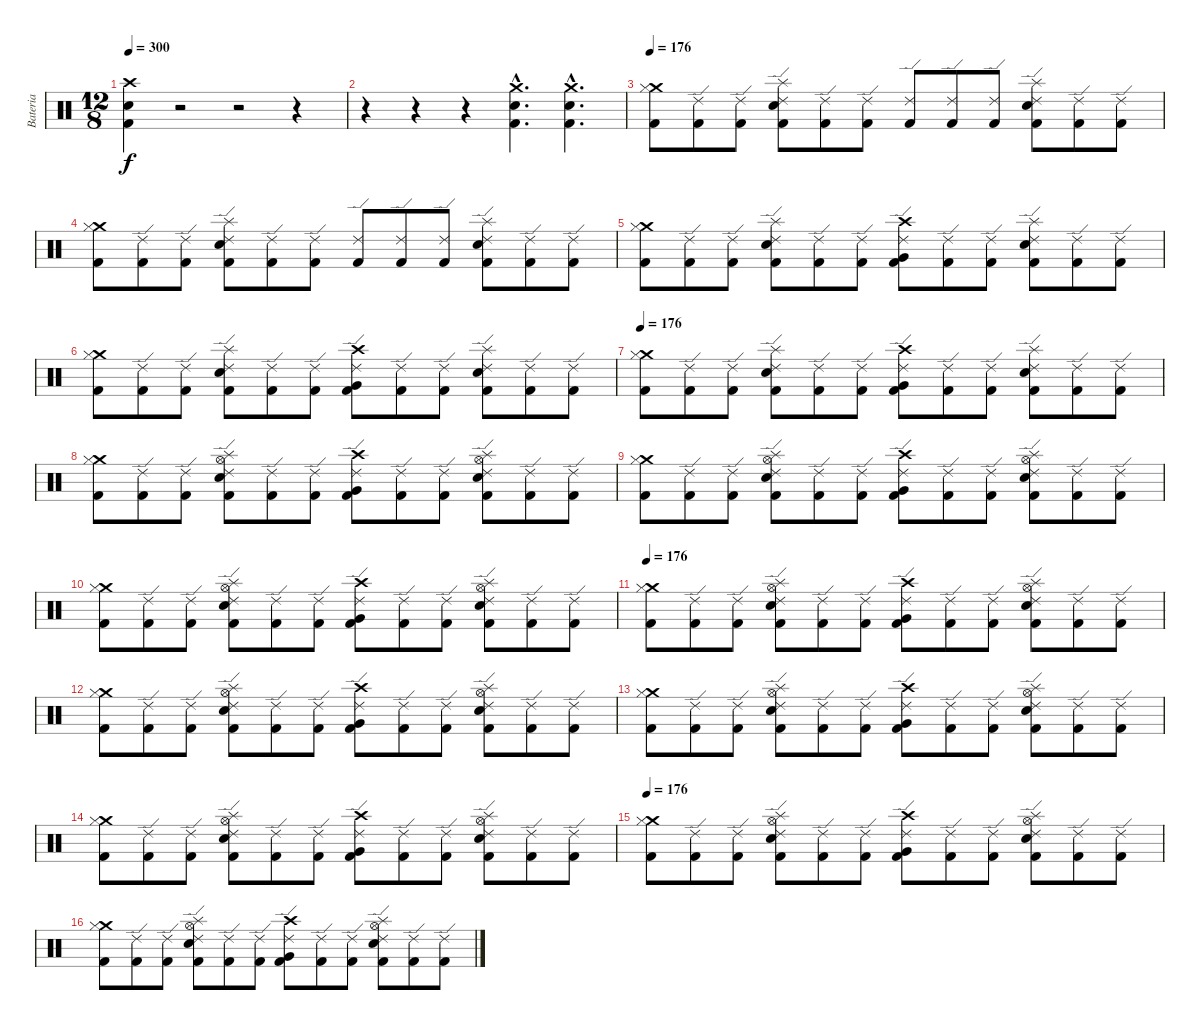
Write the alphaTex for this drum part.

\track ("Bateria" "Bateria") {instrument percussion}
\staff {score}
\articulation defaults
\ts (12 8)
\tempo 300
\clef neutral
\ks c
("Crash high (hit)" "Snare (hit) 2" "Kick (hit) 2").4{dy f} r.2 r.2 r.4 |
r.4 r.4 r.4 ("Crash medium (hit)"{hac} "Snare (hit) 2"{hac} "Kick (hit) 2"{hac}).4{d} ("Crash medium (hit)"{hac} "Snare (hit) 2"{hac} "Kick (hit) 2"{hac}).4{d} |
\tempo 176
("Crash medium (hit)" "Hi-Hat (closed)" "Kick (hit) 2").8 ("Ride (edge) 2" "Kick (hit) 2").8 ("Ride (edge) 2" "Kick (hit) 2").8 ("Splash (hit)" "Snare (hit) 2" "Ride (edge) 2" "Kick (hit) 2").8 ("Ride (edge) 2" "Kick (hit) 2").8 ("Ride (edge) 2" "Kick (hit) 2").8 ("Ride (edge) 2" "Kick (hit) 2").8 ("Ride (edge) 2" "Kick (hit) 2").8 ("Ride (edge) 2" "Kick (hit) 2").8 ("Splash (hit)" "Snare (hit) 2" "Ride (edge) 2" "Kick (hit) 2").8 ("Ride (edge) 2" "Kick (hit) 2").8 ("Ride (edge) 2" "Kick (hit) 2").8 |
("Crash medium (hit)" "Hi-Hat (closed)" "Kick (hit) 2").8 ("Ride (edge) 2" "Kick (hit) 2").8 ("Ride (edge) 2" "Kick (hit) 2").8 ("Splash (hit)" "Snare (hit) 2" "Ride (edge) 2" "Kick (hit) 2").8 ("Ride (edge) 2" "Kick (hit) 2").8 ("Ride (edge) 2" "Kick (hit) 2").8 ("Ride (edge) 2" "Kick (hit) 2").8 ("Ride (edge) 2" "Kick (hit) 2").8 ("Ride (edge) 2" "Kick (hit) 2").8 ("Splash (hit)" "Snare (hit) 2" "Ride (edge) 2" "Kick (hit) 2").8 ("Ride (edge) 2" "Kick (hit) 2").8 ("Ride (edge) 2" "Kick (hit) 2").8 |
("Crash medium (hit)" "Hi-Hat (closed)" "Kick (hit) 2").8 ("Ride (edge) 2" "Kick (hit) 2").8 ("Ride (edge) 2" "Kick (hit) 2").8 ("Splash (hit)" "Snare (hit) 2" "Ride (edge) 2" "Kick (hit) 2").8 ("Ride (edge) 2" "Kick (hit) 2").8 ("Ride (edge) 2" "Kick (hit) 2").8 ("Crash high (hit)" "Very Low Tom (hit)" "Ride (edge) 2" "Kick (hit) 2").8 ("Ride (edge) 2" "Kick (hit) 2").8 ("Ride (edge) 2" "Kick (hit) 2").8 ("Splash (hit)" "Snare (hit) 2" "Ride (edge) 2" "Kick (hit) 2").8 ("Ride (edge) 2" "Kick (hit) 2").8 ("Ride (edge) 2" "Kick (hit) 2").8 |
("Crash medium (hit)" "Hi-Hat (closed)" "Kick (hit) 2").8 ("Ride (edge) 2" "Kick (hit) 2").8 ("Ride (edge) 2" "Kick (hit) 2").8 ("Splash (hit)" "Snare (hit) 2" "Ride (edge) 2" "Kick (hit) 2").8 ("Ride (edge) 2" "Kick (hit) 2").8 ("Ride (edge) 2" "Kick (hit) 2").8 ("Crash high (hit)" "Very Low Tom (hit)" "Ride (edge) 2" "Kick (hit) 2").8 ("Ride (edge) 2" "Kick (hit) 2").8 ("Ride (edge) 2" "Kick (hit) 2").8 ("Splash (hit)" "Snare (hit) 2" "Ride (edge) 2" "Kick (hit) 2").8 ("Ride (edge) 2" "Kick (hit) 2").8 ("Ride (edge) 2" "Kick (hit) 2").8 |
\tempo 176
("Crash medium (hit)" "Hi-Hat (closed)" "Kick (hit) 2").8 ("Ride (edge) 2" "Kick (hit) 2").8 ("Ride (edge) 2" "Kick (hit) 2").8 ("Splash (hit)" "Snare (hit) 2" "Ride (edge) 2" "Kick (hit) 2").8 ("Ride (edge) 2" "Kick (hit) 2").8 ("Ride (edge) 2" "Kick (hit) 2").8 ("Crash high (hit)" "Very Low Tom (hit)" "Ride (edge) 2" "Kick (hit) 2").8 ("Ride (edge) 2" "Kick (hit) 2").8 ("Ride (edge) 2" "Kick (hit) 2").8 ("Splash (hit)" "Snare (hit) 2" "Ride (edge) 2" "Kick (hit) 2").8 ("Ride (edge) 2" "Kick (hit) 2").8 ("Ride (edge) 2" "Kick (hit) 2").8 |
("Crash medium (hit)" "Hi-Hat (closed)" "Kick (hit) 2").8 ("Ride (edge) 2" "Kick (hit) 2").8 ("Ride (edge) 2" "Kick (hit) 2").8 ("Splash (hit)" "Snare (hit) 2" "Hi-Hat (open)" "Ride (edge) 2" "Kick (hit) 2").8 ("Ride (edge) 2" "Kick (hit) 2").8 ("Ride (edge) 2" "Kick (hit) 2").8 ("Crash high (hit)" "Very Low Tom (hit)" "Ride (edge) 2" "Kick (hit) 2").8 ("Ride (edge) 2" "Kick (hit) 2").8 ("Ride (edge) 2" "Kick (hit) 2").8 ("Splash (hit)" "Snare (hit) 2" "Hi-Hat (open)" "Ride (edge) 2" "Kick (hit) 2").8 ("Ride (edge) 2" "Kick (hit) 2").8 ("Ride (edge) 2" "Kick (hit) 2").8 |
("Crash medium (hit)" "Hi-Hat (closed)" "Kick (hit) 2").8 ("Ride (edge) 2" "Kick (hit) 2").8 ("Ride (edge) 2" "Kick (hit) 2").8 ("Splash (hit)" "Snare (hit) 2" "Hi-Hat (open)" "Ride (edge) 2" "Kick (hit) 2").8 ("Ride (edge) 2" "Kick (hit) 2").8 ("Ride (edge) 2" "Kick (hit) 2").8 ("Crash high (hit)" "Very Low Tom (hit)" "Ride (edge) 2" "Kick (hit) 2").8 ("Ride (edge) 2" "Kick (hit) 2").8 ("Ride (edge) 2" "Kick (hit) 2").8 ("Splash (hit)" "Snare (hit) 2" "Hi-Hat (open)" "Ride (edge) 2" "Kick (hit) 2").8 ("Ride (edge) 2" "Kick (hit) 2").8 ("Ride (edge) 2" "Kick (hit) 2").8 |
("Crash medium (hit)" "Hi-Hat (closed)" "Kick (hit) 2").8 ("Ride (edge) 2" "Kick (hit) 2").8 ("Ride (edge) 2" "Kick (hit) 2").8 ("Splash (hit)" "Snare (hit) 2" "Hi-Hat (open)" "Ride (edge) 2" "Kick (hit) 2").8 ("Ride (edge) 2" "Kick (hit) 2").8 ("Ride (edge) 2" "Kick (hit) 2").8 ("Crash high (hit)" "Very Low Tom (hit)" "Ride (edge) 2" "Kick (hit) 2").8 ("Ride (edge) 2" "Kick (hit) 2").8 ("Ride (edge) 2" "Kick (hit) 2").8 ("Splash (hit)" "Snare (hit) 2" "Hi-Hat (open)" "Ride (edge) 2" "Kick (hit) 2").8 ("Ride (edge) 2" "Kick (hit) 2").8 ("Ride (edge) 2" "Kick (hit) 2").8 |
\tempo 176
("Crash medium (hit)" "Hi-Hat (closed)" "Kick (hit) 2").8 ("Ride (edge) 2" "Kick (hit) 2").8 ("Ride (edge) 2" "Kick (hit) 2").8 ("Splash (hit)" "Snare (hit) 2" "Hi-Hat (open)" "Ride (edge) 2" "Kick (hit) 2").8 ("Ride (edge) 2" "Kick (hit) 2").8 ("Ride (edge) 2" "Kick (hit) 2").8 ("Crash high (hit)" "Very Low Tom (hit)" "Ride (edge) 2" "Kick (hit) 2").8 ("Ride (edge) 2" "Kick (hit) 2").8 ("Ride (edge) 2" "Kick (hit) 2").8 ("Splash (hit)" "Snare (hit) 2" "Hi-Hat (open)" "Ride (edge) 2" "Kick (hit) 2").8 ("Ride (edge) 2" "Kick (hit) 2").8 ("Ride (edge) 2" "Kick (hit) 2").8 |
("Crash medium (hit)" "Hi-Hat (closed)" "Kick (hit) 2").8 ("Ride (edge) 2" "Kick (hit) 2").8 ("Ride (edge) 2" "Kick (hit) 2").8 ("Splash (hit)" "Snare (hit) 2" "Hi-Hat (open)" "Ride (edge) 2" "Kick (hit) 2").8 ("Ride (edge) 2" "Kick (hit) 2").8 ("Ride (edge) 2" "Kick (hit) 2").8 ("Crash high (hit)" "Very Low Tom (hit)" "Ride (edge) 2" "Kick (hit) 2").8 ("Ride (edge) 2" "Kick (hit) 2").8 ("Ride (edge) 2" "Kick (hit) 2").8 ("Splash (hit)" "Snare (hit) 2" "Hi-Hat (open)" "Ride (edge) 2" "Kick (hit) 2").8 ("Ride (edge) 2" "Kick (hit) 2").8 ("Ride (edge) 2" "Kick (hit) 2").8 |
("Crash medium (hit)" "Hi-Hat (closed)" "Kick (hit) 2").8 ("Ride (edge) 2" "Kick (hit) 2").8 ("Ride (edge) 2" "Kick (hit) 2").8 ("Splash (hit)" "Snare (hit) 2" "Hi-Hat (open)" "Ride (edge) 2" "Kick (hit) 2").8 ("Ride (edge) 2" "Kick (hit) 2").8 ("Ride (edge) 2" "Kick (hit) 2").8 ("Crash high (hit)" "Very Low Tom (hit)" "Ride (edge) 2" "Kick (hit) 2").8 ("Ride (edge) 2" "Kick (hit) 2").8 ("Ride (edge) 2" "Kick (hit) 2").8 ("Splash (hit)" "Snare (hit) 2" "Hi-Hat (open)" "Ride (edge) 2" "Kick (hit) 2").8 ("Ride (edge) 2" "Kick (hit) 2").8 ("Ride (edge) 2" "Kick (hit) 2").8 |
("Crash medium (hit)" "Hi-Hat (closed)" "Kick (hit) 2").8 ("Ride (edge) 2" "Kick (hit) 2").8 ("Ride (edge) 2" "Kick (hit) 2").8 ("Splash (hit)" "Snare (hit) 2" "Hi-Hat (open)" "Ride (edge) 2" "Kick (hit) 2").8 ("Ride (edge) 2" "Kick (hit) 2").8 ("Ride (edge) 2" "Kick (hit) 2").8 ("Crash high (hit)" "Very Low Tom (hit)" "Ride (edge) 2" "Kick (hit) 2").8 ("Ride (edge) 2" "Kick (hit) 2").8 ("Ride (edge) 2" "Kick (hit) 2").8 ("Splash (hit)" "Snare (hit) 2" "Hi-Hat (open)" "Ride (edge) 2" "Kick (hit) 2").8 ("Ride (edge) 2" "Kick (hit) 2").8 ("Ride (edge) 2" "Kick (hit) 2").8 |
\tempo 176
("Crash medium (hit)" "Hi-Hat (closed)" "Kick (hit) 2").8 ("Ride (edge) 2" "Kick (hit) 2").8 ("Ride (edge) 2" "Kick (hit) 2").8 ("Splash (hit)" "Snare (hit) 2" "Hi-Hat (open)" "Ride (edge) 2" "Kick (hit) 2").8 ("Ride (edge) 2" "Kick (hit) 2").8 ("Ride (edge) 2" "Kick (hit) 2").8 ("Crash high (hit)" "Very Low Tom (hit)" "Ride (edge) 2" "Kick (hit) 2").8 ("Ride (edge) 2" "Kick (hit) 2").8 ("Ride (edge) 2" "Kick (hit) 2").8 ("Splash (hit)" "Snare (hit) 2" "Hi-Hat (open)" "Ride (edge) 2" "Kick (hit) 2").8 ("Ride (edge) 2" "Kick (hit) 2").8 ("Ride (edge) 2" "Kick (hit) 2").8 |
("Crash medium (hit)" "Hi-Hat (closed)" "Kick (hit) 2").8 ("Ride (edge) 2" "Kick (hit) 2").8 ("Ride (edge) 2" "Kick (hit) 2").8 ("Splash (hit)" "Snare (hit) 2" "Hi-Hat (open)" "Ride (edge) 2" "Kick (hit) 2").8 ("Ride (edge) 2" "Kick (hit) 2").8 ("Ride (edge) 2" "Kick (hit) 2").8 ("Crash high (hit)" "Very Low Tom (hit)" "Ride (edge) 2" "Kick (hit) 2").8 ("Ride (edge) 2" "Kick (hit) 2").8 ("Ride (edge) 2" "Kick (hit) 2").8 ("Splash (hit)" "Snare (hit) 2" "Hi-Hat (open)" "Ride (edge) 2" "Kick (hit) 2").8 ("Ride (edge) 2" "Kick (hit) 2").8 ("Ride (edge) 2" "Kick (hit) 2").8
